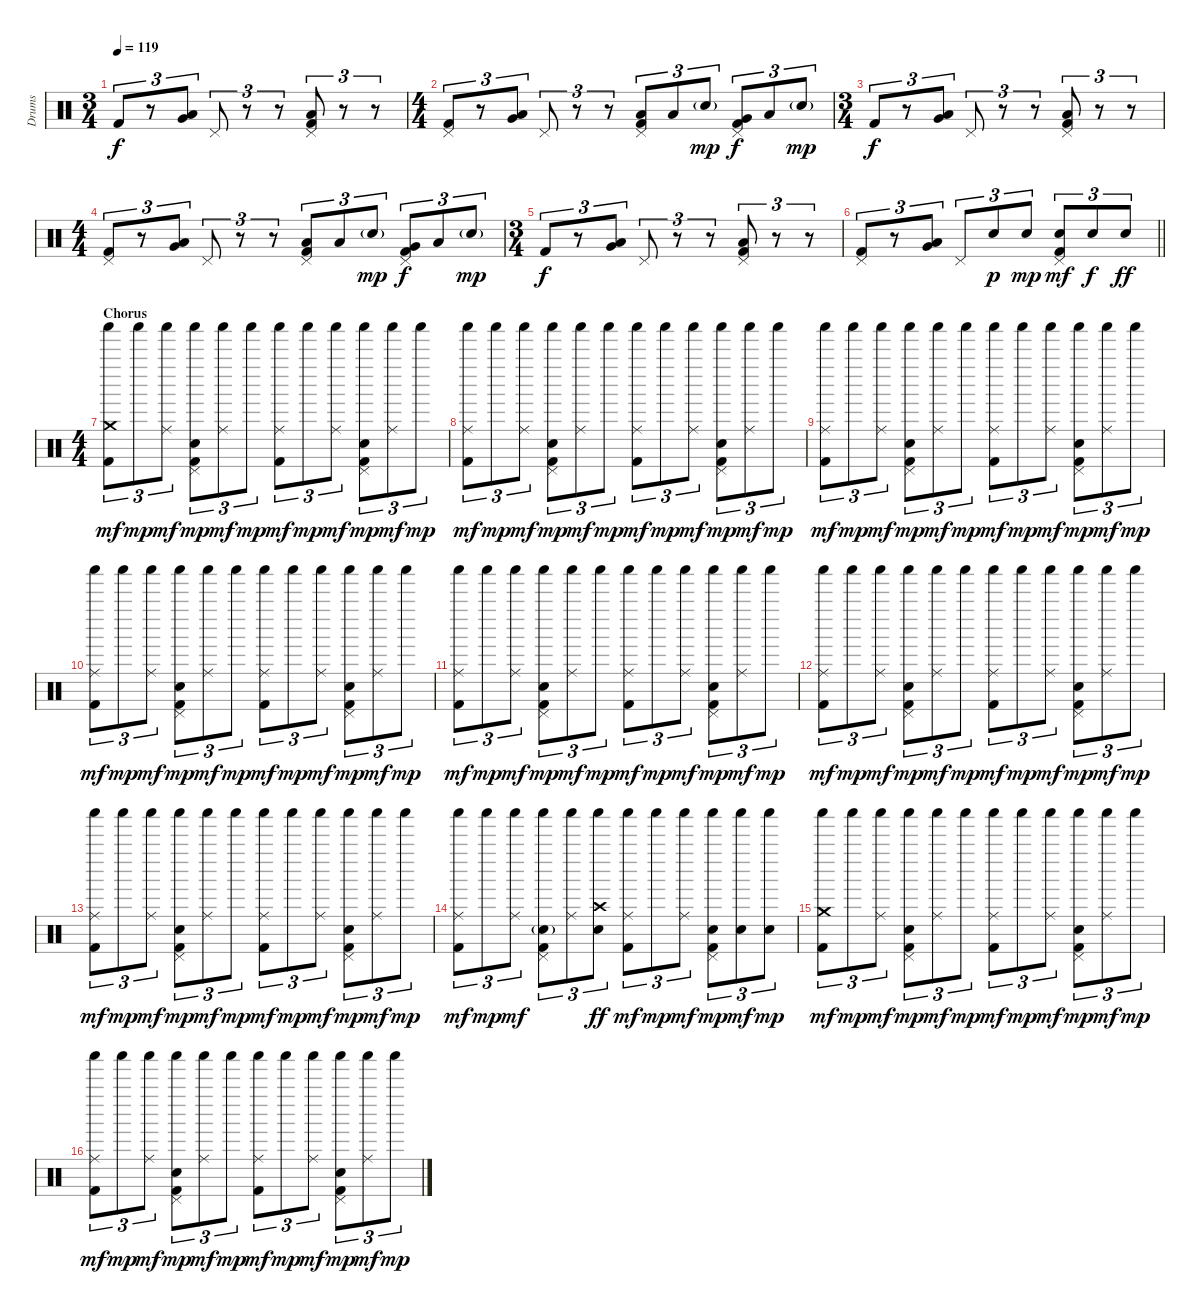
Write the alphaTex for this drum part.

\track ("Drums" "Drums") {instrument percussion}
\staff {score}
\articulation defaults
\ts (3 4)
\tempo 119
\clef neutral
\ks c "Kick (hit) 2".8{tu (3 2) dy f}
r.8{tu (3 2)} ("Very Low Tom (hit)" "Low Tom (hit)").8{tu (3 2)} "Pedal Hi-Hat (hit)".8{tu (3 2)} r.8{tu (3 2)} r.8{tu (3 2)} ("Pedal Hi-Hat (hit)" "Low Tom (hit)" "Kick (hit) 2").8{tu (3 2)} r.8{tu (3 2)} r.8{tu (3 2)} |
\ts (4 4)
("Pedal Hi-Hat (hit)" "Kick (hit) 2").8{tu (3 2)} r.8{tu (3 2)} ("Very Low Tom (hit)" "Low Tom (hit)").8{tu (3 2)} "Pedal Hi-Hat (hit)".8{tu (3 2)} r.8{tu (3 2)} r.8{tu (3 2)} ("Pedal Hi-Hat (hit)" "Low Tom (hit)" "Kick (hit) 2").8{tu (3 2)} "Low Tom (hit)".8{tu (3 2)} "Electric Snare (hit)"{g}.8{tu (3 2) dy mp} ("Pedal Hi-Hat (hit)" "Very Low Tom (hit)" "Kick (hit) 2").8{tu (3 2) dy f} "Low Tom (hit)".8{tu (3 2)} "Electric Snare (hit)"{g}.8{tu (3 2) dy mp} |
\ts (3 4)
"Kick (hit) 2".8{tu (3 2) dy f} r.8{tu (3 2)} ("Very Low Tom (hit)" "Low Tom (hit)").8{tu (3 2)} "Pedal Hi-Hat (hit)".8{tu (3 2)} r.8{tu (3 2)} r.8{tu (3 2)} ("Pedal Hi-Hat (hit)" "Low Tom (hit)" "Kick (hit) 2").8{tu (3 2)} r.8{tu (3 2)} r.8{tu (3 2)} |
\ts (4 4)
("Pedal Hi-Hat (hit)" "Kick (hit) 2").8{tu (3 2)} r.8{tu (3 2)} ("Very Low Tom (hit)" "Low Tom (hit)").8{tu (3 2)} "Pedal Hi-Hat (hit)".8{tu (3 2)} r.8{tu (3 2)} r.8{tu (3 2)} ("Pedal Hi-Hat (hit)" "Low Tom (hit)" "Kick (hit) 2").8{tu (3 2)} "Low Tom (hit)".8{tu (3 2)} "Electric Snare (hit)"{g}.8{tu (3 2) dy mp} ("Pedal Hi-Hat (hit)" "Very Low Tom (hit)" "Kick (hit) 2").8{tu (3 2) dy f} "Low Tom (hit)".8{tu (3 2)} "Electric Snare (hit)"{g}.8{tu (3 2) dy mp} |
\ts (3 4)
"Kick (hit) 2".8{tu (3 2) dy f} r.8{tu (3 2)} ("Very Low Tom (hit)" "Low Tom (hit)").8{tu (3 2)} "Pedal Hi-Hat (hit)".8{tu (3 2)} r.8{tu (3 2)} r.8{tu (3 2)} ("Pedal Hi-Hat (hit)" "Low Tom (hit)" "Kick (hit) 2").8{tu (3 2)} r.8{tu (3 2)} r.8{tu (3 2)} |
\barLineRight lightlight
("Pedal Hi-Hat (hit)" "Kick (hit) 2").8{tu (3 2)} r.8{tu (3 2)} ("Very Low Tom (hit)" "Low Tom (hit)").8{tu (3 2)} "Pedal Hi-Hat (hit)".8{tu (3 2)} "Electric Snare (hit)".8{tu (3 2) dy p} "Electric Snare (hit)".8{tu (3 2) dy mp} ("Pedal Hi-Hat (hit)" "Electric Snare (hit)" "Kick (hit) 2").8{tu (3 2) dy mf} "Electric Snare (hit)".8{tu (3 2) dy f} "Electric Snare (hit)".8{tu (3 2) dy ff} |
\ts (4 4)
\section ("" "Chorus")
("Crash medium (hit)" "Shaker (hit)" "Kick (hit) 2").8{tu (3 2) dy mf} "Shaker (hit)".8{tu (3 2) dy mp} ("Ride (middle)" "Shaker (hit)").8{tu (3 2) dy mf} ("Pedal Hi-Hat (hit)" "Shaker (hit)" "Electric Snare (hit)" "Kick (hit) 2").8{tu (3 2) dy mp} ("Ride (middle)" "Shaker (hit)").8{tu (3 2) dy mf} "Shaker (hit)".8{tu (3 2) dy mp} ("Ride (middle)" "Shaker (hit)" "Kick (hit) 2").8{tu (3 2) dy mf} "Shaker (hit)".8{tu (3 2) dy mp} ("Ride (middle)" "Shaker (hit)").8{tu (3 2) dy mf} ("Pedal Hi-Hat (hit)" "Shaker (hit)" "Electric Snare (hit)" "Kick (hit) 2").8{tu (3 2) dy mp} ("Ride (middle)" "Shaker (hit)").8{tu (3 2) dy mf} "Shaker (hit)".8{tu (3 2) dy mp} |
("Ride (middle)" "Shaker (hit)" "Kick (hit) 2").8{tu (3 2) dy mf} "Shaker (hit)".8{tu (3 2) dy mp} ("Ride (middle)" "Shaker (hit)").8{tu (3 2) dy mf} ("Pedal Hi-Hat (hit)" "Shaker (hit)" "Electric Snare (hit)" "Kick (hit) 2").8{tu (3 2) dy mp} ("Ride (middle)" "Shaker (hit)").8{tu (3 2) dy mf} "Shaker (hit)".8{tu (3 2) dy mp} ("Ride (middle)" "Shaker (hit)" "Kick (hit) 2").8{tu (3 2) dy mf} "Shaker (hit)".8{tu (3 2) dy mp} ("Ride (middle)" "Shaker (hit)").8{tu (3 2) dy mf} ("Pedal Hi-Hat (hit)" "Shaker (hit)" "Electric Snare (hit)" "Kick (hit) 2").8{tu (3 2) dy mp} ("Ride (middle)" "Shaker (hit)").8{tu (3 2) dy mf} "Shaker (hit)".8{tu (3 2) dy mp} |
("Ride (middle)" "Shaker (hit)" "Kick (hit) 2").8{tu (3 2) dy mf} "Shaker (hit)".8{tu (3 2) dy mp} ("Ride (middle)" "Shaker (hit)").8{tu (3 2) dy mf} ("Pedal Hi-Hat (hit)" "Shaker (hit)" "Electric Snare (hit)" "Kick (hit) 2").8{tu (3 2) dy mp} ("Ride (middle)" "Shaker (hit)").8{tu (3 2) dy mf} "Shaker (hit)".8{tu (3 2) dy mp} ("Ride (middle)" "Shaker (hit)" "Kick (hit) 2").8{tu (3 2) dy mf} "Shaker (hit)".8{tu (3 2) dy mp} ("Ride (middle)" "Shaker (hit)").8{tu (3 2) dy mf} ("Pedal Hi-Hat (hit)" "Shaker (hit)" "Electric Snare (hit)" "Kick (hit) 2").8{tu (3 2) dy mp} ("Ride (middle)" "Shaker (hit)").8{tu (3 2) dy mf} "Shaker (hit)".8{tu (3 2) dy mp} |
("Ride (middle)" "Shaker (hit)" "Kick (hit) 2").8{tu (3 2) dy mf} "Shaker (hit)".8{tu (3 2) dy mp} ("Ride (middle)" "Shaker (hit)").8{tu (3 2) dy mf} ("Pedal Hi-Hat (hit)" "Shaker (hit)" "Electric Snare (hit)" "Kick (hit) 2").8{tu (3 2) dy mp} ("Ride (middle)" "Shaker (hit)").8{tu (3 2) dy mf} "Shaker (hit)".8{tu (3 2) dy mp} ("Ride (middle)" "Shaker (hit)" "Kick (hit) 2").8{tu (3 2) dy mf} "Shaker (hit)".8{tu (3 2) dy mp} ("Ride (middle)" "Shaker (hit)").8{tu (3 2) dy mf} ("Pedal Hi-Hat (hit)" "Shaker (hit)" "Electric Snare (hit)" "Kick (hit) 2").8{tu (3 2) dy mp} ("Ride (middle)" "Shaker (hit)").8{tu (3 2) dy mf} "Shaker (hit)".8{tu (3 2) dy mp} |
("Ride (middle)" "Shaker (hit)" "Kick (hit) 2").8{tu (3 2) dy mf} "Shaker (hit)".8{tu (3 2) dy mp} ("Ride (middle)" "Shaker (hit)").8{tu (3 2) dy mf} ("Pedal Hi-Hat (hit)" "Shaker (hit)" "Electric Snare (hit)" "Kick (hit) 2").8{tu (3 2) dy mp} ("Ride (middle)" "Shaker (hit)").8{tu (3 2) dy mf} "Shaker (hit)".8{tu (3 2) dy mp} ("Ride (middle)" "Shaker (hit)" "Kick (hit) 2").8{tu (3 2) dy mf} "Shaker (hit)".8{tu (3 2) dy mp} ("Ride (middle)" "Shaker (hit)").8{tu (3 2) dy mf} ("Pedal Hi-Hat (hit)" "Shaker (hit)" "Electric Snare (hit)" "Kick (hit) 2").8{tu (3 2) dy mp} ("Ride (middle)" "Shaker (hit)").8{tu (3 2) dy mf} "Shaker (hit)".8{tu (3 2) dy mp} |
("Ride (middle)" "Shaker (hit)" "Kick (hit) 2").8{tu (3 2) dy mf} "Shaker (hit)".8{tu (3 2) dy mp} ("Ride (middle)" "Shaker (hit)").8{tu (3 2) dy mf} ("Pedal Hi-Hat (hit)" "Shaker (hit)" "Electric Snare (hit)" "Kick (hit) 2").8{tu (3 2) dy mp} ("Ride (middle)" "Shaker (hit)").8{tu (3 2) dy mf} "Shaker (hit)".8{tu (3 2) dy mp} ("Ride (middle)" "Shaker (hit)" "Kick (hit) 2").8{tu (3 2) dy mf} "Shaker (hit)".8{tu (3 2) dy mp} ("Ride (middle)" "Shaker (hit)").8{tu (3 2) dy mf} ("Pedal Hi-Hat (hit)" "Shaker (hit)" "Electric Snare (hit)" "Kick (hit) 2").8{tu (3 2) dy mp} ("Ride (middle)" "Shaker (hit)").8{tu (3 2) dy mf} "Shaker (hit)".8{tu (3 2) dy mp} |
("Ride (middle)" "Shaker (hit)" "Kick (hit) 2").8{tu (3 2) dy mf} "Shaker (hit)".8{tu (3 2) dy mp} ("Ride (middle)" "Shaker (hit)").8{tu (3 2) dy mf} ("Pedal Hi-Hat (hit)" "Shaker (hit)" "Electric Snare (hit)" "Kick (hit) 2").8{tu (3 2) dy mp} ("Ride (middle)" "Shaker (hit)").8{tu (3 2) dy mf} "Shaker (hit)".8{tu (3 2) dy mp} ("Ride (middle)" "Shaker (hit)" "Kick (hit) 2").8{tu (3 2) dy mf} "Shaker (hit)".8{tu (3 2) dy mp} ("Ride (middle)" "Shaker (hit)").8{tu (3 2) dy mf} ("Pedal Hi-Hat (hit)" "Shaker (hit)" "Electric Snare (hit)" "Kick (hit) 2").8{tu (3 2) dy mp} ("Ride (middle)" "Shaker (hit)").8{tu (3 2) dy mf} "Shaker (hit)".8{tu (3 2) dy mp} |
("Ride (middle)" "Shaker (hit)" "Kick (hit) 2").8{tu (3 2) dy mf} "Shaker (hit)".8{tu (3 2) dy mp} ("Ride (middle)" "Shaker (hit)").8{tu (3 2) dy mf} ("Pedal Hi-Hat (hit)" "Shaker (hit)" "Electric Snare (hit)"{g} "Kick (hit) 2").8{tu (3 2)} ("Ride (middle)" "Shaker (hit)").8{tu (3 2)} ("Crash high (hit)" "Shaker (hit)" "Electric Snare (hit)").8{tu (3 2) dy ff} ("Ride (middle)" "Shaker (hit)" "Kick (hit) 2").8{tu (3 2) dy mf} "Shaker (hit)".8{tu (3 2) dy mp} ("Ride (middle)" "Shaker (hit)").8{tu (3 2) dy mf} ("Pedal Hi-Hat (hit)" "Shaker (hit)" "Electric Snare (hit)" "Kick (hit) 2").8{tu (3 2) dy mp} ("Shaker (hit)" "Electric Snare (hit)").8{tu (3 2) dy mf} ("Shaker (hit)" "Electric Snare (hit)").8{tu (3 2) dy mp} |
("Crash medium (hit)" "Shaker (hit)" "Kick (hit) 2").8{tu (3 2) dy mf} "Shaker (hit)".8{tu (3 2) dy mp} ("Ride (middle)" "Shaker (hit)").8{tu (3 2) dy mf} ("Pedal Hi-Hat (hit)" "Shaker (hit)" "Electric Snare (hit)" "Kick (hit) 2").8{tu (3 2) dy mp} ("Ride (middle)" "Shaker (hit)").8{tu (3 2) dy mf} "Shaker (hit)".8{tu (3 2) dy mp} ("Ride (middle)" "Shaker (hit)" "Kick (hit) 2").8{tu (3 2) dy mf} "Shaker (hit)".8{tu (3 2) dy mp} ("Ride (middle)" "Shaker (hit)").8{tu (3 2) dy mf} ("Pedal Hi-Hat (hit)" "Shaker (hit)" "Electric Snare (hit)" "Kick (hit) 2").8{tu (3 2) dy mp} ("Ride (middle)" "Shaker (hit)").8{tu (3 2) dy mf} "Shaker (hit)".8{tu (3 2) dy mp} |
("Ride (middle)" "Shaker (hit)" "Kick (hit) 2").8{tu (3 2) dy mf} "Shaker (hit)".8{tu (3 2) dy mp} ("Ride (middle)" "Shaker (hit)").8{tu (3 2) dy mf} ("Pedal Hi-Hat (hit)" "Shaker (hit)" "Electric Snare (hit)" "Kick (hit) 2").8{tu (3 2) dy mp} ("Ride (middle)" "Shaker (hit)").8{tu (3 2) dy mf} "Shaker (hit)".8{tu (3 2) dy mp} ("Ride (middle)" "Shaker (hit)" "Kick (hit) 2").8{tu (3 2) dy mf} "Shaker (hit)".8{tu (3 2) dy mp} ("Ride (middle)" "Shaker (hit)").8{tu (3 2) dy mf} ("Pedal Hi-Hat (hit)" "Shaker (hit)" "Electric Snare (hit)" "Kick (hit) 2").8{tu (3 2) dy mp} ("Ride (middle)" "Shaker (hit)").8{tu (3 2) dy mf} "Shaker (hit)".8{tu (3 2) dy mp}
